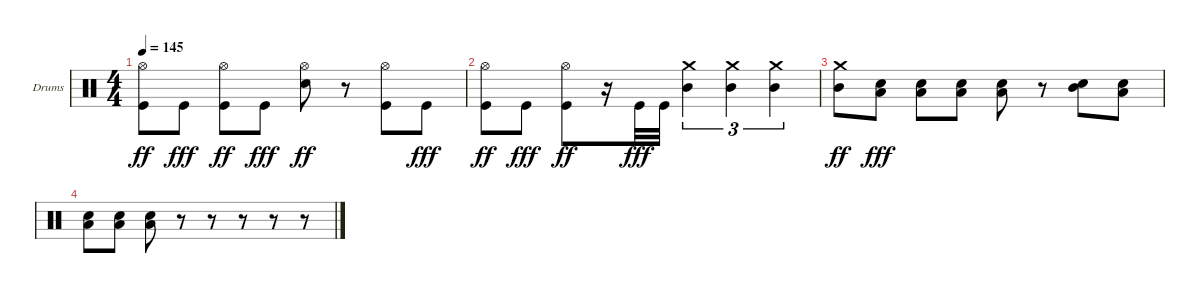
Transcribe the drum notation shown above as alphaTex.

\defaultSystemsLayout 4
\bracketExtendMode groupsimilarinstruments
\firstSystemTrackNameOrientation horizontal
\otherSystemsTrackNameOrientation horizontal
\track ("Drumkit" "Drums") {instrument percussion}
\staff {score}
\articulation defaults
\ts (4 4)
\tempo 145
\clef neutral
\scale
0.333333
\ks c
("Hi-Hat (open)" "Kick (hit)").8{dy ff} "Kick (hit)".8{dy fff} ("Hi-Hat (open)" "Kick (hit)").8{dy ff} "Kick (hit)".8{dy fff} ("Hi-Hat (open)" "Snare (hit) 2").8{dy ff} r.8 ("Hi-Hat (open)" "Kick (hit)").8 "Kick (hit)".8{dy fff} |
("Hi-Hat (open)" "Kick (hit)").8{dy ff} "Kick (hit)".8{dy fff} ("Hi-Hat (open)" "Kick (hit)").8{dy ff} r.16 "Kick (hit)".32{dy fff} "Kick (hit)".32 ("Crash medium (hit)" "Mid Tom (hit)").4{tu (3 2)} ("Crash medium (hit)" "Mid Tom (hit)").4{tu (3 2)} ("Crash medium (hit)" "Mid Tom (hit)").4{tu (3 2)} |
("Crash medium (hit)" "Mid Tom (hit)").8{dy ff} ("Low Tom (hit)" "Snare (hit) 2").8{dy fff} ("Low Tom (hit)" "Snare (hit) 2").8 ("Low Tom (hit)" "Snare (hit) 2").8 ("Low Tom (hit)" "Snare (hit) 2").8 r.8 ("Mid Tom (hit)" "Snare (hit) 2").8 ("Low Tom (hit)" "Snare (hit) 2").8 |
("Low Tom (hit)" "Snare (hit) 2").8 ("Low Tom (hit)" "Snare (hit) 2").8 ("Low Tom (hit)" "Snare (hit) 2").8 r.8 r.8 r.8 r.8 r.8
